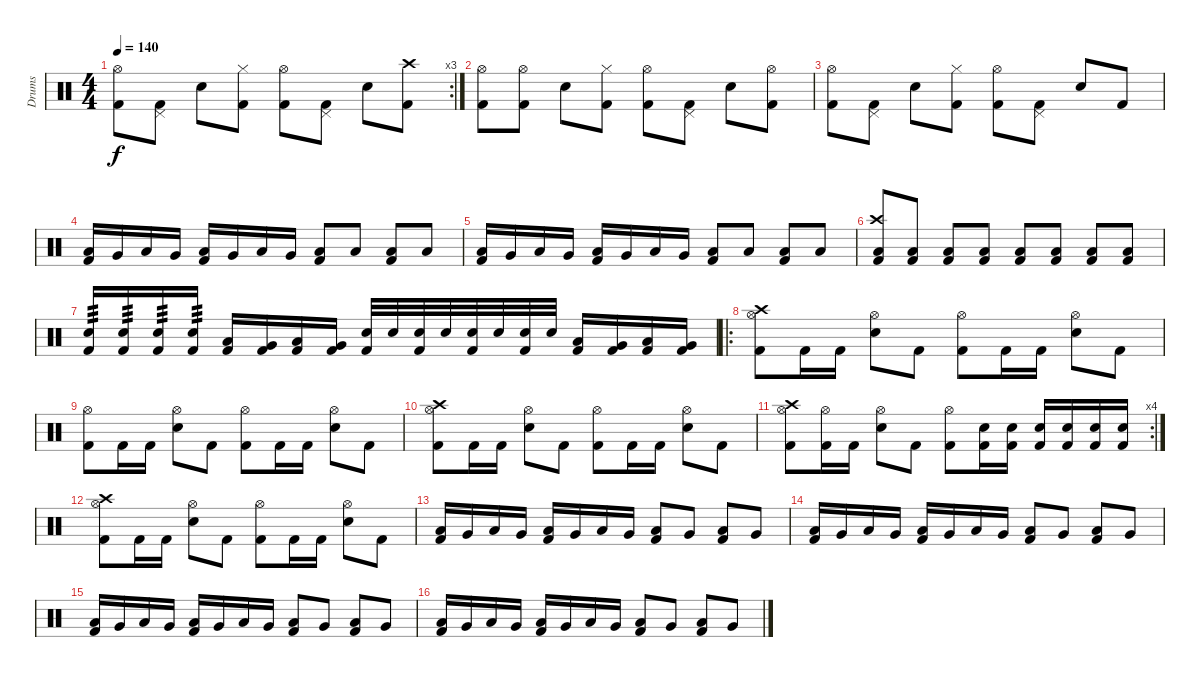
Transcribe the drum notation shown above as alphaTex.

\track ("Drums" "Drums") {instrument percussion}
\staff {score}
\articulation defaults
\rc 3
\ts (4 4)
\tempo 140
\clef neutral
\ks c
("Hi-Hat (open)" "Kick (hit) 2").8{dy f} ("Pedal Hi-Hat (hit)" "Kick (hit) 2").8 "Electric Snare (hit)".8 ("Hi-Hat (closed)" "Kick (hit) 2").8 ("Hi-Hat (open)" "Kick (hit) 2").8 ("Pedal Hi-Hat (hit)" "Kick (hit) 2").8 "Electric Snare (hit)".8 ("Crash high (hit)" "Kick (hit) 2").8 |
("Hi-Hat (open)" "Kick (hit) 2").8 ("Hi-Hat (open)" "Kick (hit) 2").8 "Electric Snare (hit)".8 ("Hi-Hat (closed)" "Kick (hit) 2").8 ("Hi-Hat (open)" "Kick (hit) 2").8 ("Pedal Hi-Hat (hit)" "Kick (hit) 2").8 "Electric Snare (hit)".8 ("Hi-Hat (open)" "Kick (hit) 2").8 |
("Hi-Hat (open)" "Kick (hit) 2").8 ("Pedal Hi-Hat (hit)" "Kick (hit) 2").8 "Electric Snare (hit)".8 ("Hi-Hat (closed)" "Kick (hit) 2").8 ("Hi-Hat (open)" "Kick (hit) 2").8 ("Pedal Hi-Hat (hit)" "Kick (hit) 2").8 "Electric Snare (hit)".8 "Kick (hit) 2".8 |
("Low Floor Tom (hit)" "Kick (hit) 2").16 "Very Low Tom (hit)".16 "Low Floor Tom (hit)".16 "Very Low Tom (hit)".16 ("Low Floor Tom (hit)" "Kick (hit) 2").16 "Very Low Tom (hit)".16 "Low Floor Tom (hit)".16 "Very Low Tom (hit)".16 ("Low Floor Tom (hit)" "Kick (hit) 2").8 "Low Floor Tom (hit)".8 ("Low Floor Tom (hit)" "Kick (hit) 2").8 "Low Floor Tom (hit)".8 |
("Low Floor Tom (hit)" "Kick (hit) 2").16 "Very Low Tom (hit)".16 "Low Floor Tom (hit)".16 "Very Low Tom (hit)".16 ("Low Floor Tom (hit)" "Kick (hit) 2").16 "Very Low Tom (hit)".16 "Low Floor Tom (hit)".16 "Very Low Tom (hit)".16 ("Low Floor Tom (hit)" "Kick (hit) 2").8 "Low Floor Tom (hit)".8 ("Low Floor Tom (hit)" "Kick (hit) 2").8 "Low Floor Tom (hit)".8 |
("Crash high (hit)" "Low Floor Tom (hit)" "Kick (hit) 2").8 ("Low Floor Tom (hit)" "Kick (hit) 2").8 ("Low Floor Tom (hit)" "Kick (hit) 2").8 ("Low Floor Tom (hit)" "Kick (hit) 2").8 ("Low Floor Tom (hit)" "Kick (hit) 2").8 ("Low Floor Tom (hit)" "Kick (hit) 2").8 ("Low Floor Tom (hit)" "Kick (hit) 2").8 ("Low Floor Tom (hit)" "Kick (hit) 2").8 |
("Electric Snare (hit)" "Kick (hit) 2").16{tp 3} ("Electric Snare (hit)" "Kick (hit) 2").16{tp 3} ("Electric Snare (hit)" "Kick (hit) 2").16{tp 3} ("Electric Snare (hit)" "Kick (hit) 2").16{tp 3} ("Low Floor Tom (hit)" "Kick (hit) 2").16 ("Very Low Tom (hit)" "Kick (hit) 2").16 ("Low Tom (hit)" "Kick (hit) 2").16 ("Very Low Tom (hit)" "Kick (hit) 2").16 ("Electric Snare (hit)" "Kick (hit) 2").32 "Electric Snare (hit)".32 ("Electric Snare (hit)" "Kick (hit) 2").32 "Electric Snare (hit)".32 ("Electric Snare (hit)" "Kick (hit) 2").32 "Electric Snare (hit)".32 ("Electric Snare (hit)" "Kick (hit) 2").32 "Electric Snare (hit)".32 ("Low Floor Tom (hit)" "Kick (hit) 2").16 ("Very Low Tom (hit)" "Kick (hit) 2").16 ("Low Tom (hit)" "Kick (hit) 2").16 ("Very Low Tom (hit)" "Kick (hit) 2").16 |
\ro
("Crash high (hit)" "Hi-Hat (open)" "Kick (hit) 2").8 "Kick (hit) 2".16 "Kick (hit) 2".16 ("Hi-Hat (open)" "Electric Snare (hit)").8 "Kick (hit) 2".8 ("Hi-Hat (open)" "Kick (hit) 2").8 "Kick (hit) 2".16 "Kick (hit) 2".16 ("Hi-Hat (open)" "Electric Snare (hit)").8 "Kick (hit) 2".8 |
("Hi-Hat (open)" "Kick (hit) 2").8 "Kick (hit) 2".16 "Kick (hit) 2".16 ("Hi-Hat (open)" "Electric Snare (hit)").8 "Kick (hit) 2".8 ("Hi-Hat (open)" "Kick (hit) 2").8 "Kick (hit) 2".16 "Kick (hit) 2".16 ("Hi-Hat (open)" "Electric Snare (hit)").8 "Kick (hit) 2".8 |
("Crash high (hit)" "Hi-Hat (open)" "Kick (hit) 2").8 "Kick (hit) 2".16 "Kick (hit) 2".16 ("Hi-Hat (open)" "Electric Snare (hit)").8 "Kick (hit) 2".8 ("Hi-Hat (open)" "Kick (hit) 2").8 "Kick (hit) 2".16 "Kick (hit) 2".16 ("Hi-Hat (open)" "Electric Snare (hit)").8 "Kick (hit) 2".8 |
\rc 4
("Crash high (hit)" "Hi-Hat (open)" "Kick (hit) 2").8 ("Hi-Hat (open)" "Kick (hit) 2").16 "Kick (hit) 2".16 ("Hi-Hat (open)" "Electric Snare (hit)").8 "Kick (hit) 2".8 ("Hi-Hat (open)" "Kick (hit) 2").8 ("Electric Snare (hit)" "Kick (hit) 2").16 ("Electric Snare (hit)" "Kick (hit) 2").16 ("Electric Snare (hit)" "Kick (hit) 2").16 ("Electric Snare (hit)" "Kick (hit) 2").16 ("Electric Snare (hit)" "Kick (hit) 2").16 ("Electric Snare (hit)" "Kick (hit) 2").16 |
("Crash high (hit)" "Hi-Hat (open)" "Kick (hit) 2").8 "Kick (hit) 2".16 "Kick (hit) 2".16 ("Hi-Hat (open)" "Electric Snare (hit)").8 "Kick (hit) 2".8 ("Hi-Hat (open)" "Kick (hit) 2").8 "Kick (hit) 2".16 "Kick (hit) 2".16 ("Hi-Hat (open)" "Electric Snare (hit)").8 "Kick (hit) 2".8 |
("Low Floor Tom (hit)" "Kick (hit) 2").16 "Very Low Tom (hit)".16 "Low Floor Tom (hit)".16 "Very Low Tom (hit)".16 ("Low Floor Tom (hit)" "Kick (hit) 2").16 "Very Low Tom (hit)".16 "Low Floor Tom (hit)".16 "Very Low Tom (hit)".16 ("Low Floor Tom (hit)" "Kick (hit) 2").8 "Very Low Tom (hit)".8 ("Low Floor Tom (hit)" "Kick (hit) 2").8 "Very Low Tom (hit)".8 |
("Low Floor Tom (hit)" "Kick (hit) 2").16 "Very Low Tom (hit)".16 "Low Floor Tom (hit)".16 "Very Low Tom (hit)".16 ("Low Floor Tom (hit)" "Kick (hit) 2").16 "Very Low Tom (hit)".16 "Low Floor Tom (hit)".16 "Very Low Tom (hit)".16 ("Low Floor Tom (hit)" "Kick (hit) 2").8 "Very Low Tom (hit)".8 ("Low Floor Tom (hit)" "Kick (hit) 2").8 "Very Low Tom (hit)".8 |
("Low Floor Tom (hit)" "Kick (hit) 2").16 "Very Low Tom (hit)".16 "Low Floor Tom (hit)".16 "Very Low Tom (hit)".16 ("Low Floor Tom (hit)" "Kick (hit) 2").16 "Very Low Tom (hit)".16 "Low Floor Tom (hit)".16 "Very Low Tom (hit)".16 ("Low Floor Tom (hit)" "Kick (hit) 2").8 "Very Low Tom (hit)".8 ("Low Floor Tom (hit)" "Kick (hit) 2").8 "Very Low Tom (hit)".8 |
("Low Floor Tom (hit)" "Kick (hit) 2").16 "Very Low Tom (hit)".16 "Low Floor Tom (hit)".16 "Very Low Tom (hit)".16 ("Low Floor Tom (hit)" "Kick (hit) 2").16 "Very Low Tom (hit)".16 "Low Floor Tom (hit)".16 "Very Low Tom (hit)".16 ("Low Floor Tom (hit)" "Kick (hit) 2").8 "Very Low Tom (hit)".8 ("Low Floor Tom (hit)" "Kick (hit) 2").8 "Very Low Tom (hit)".8
